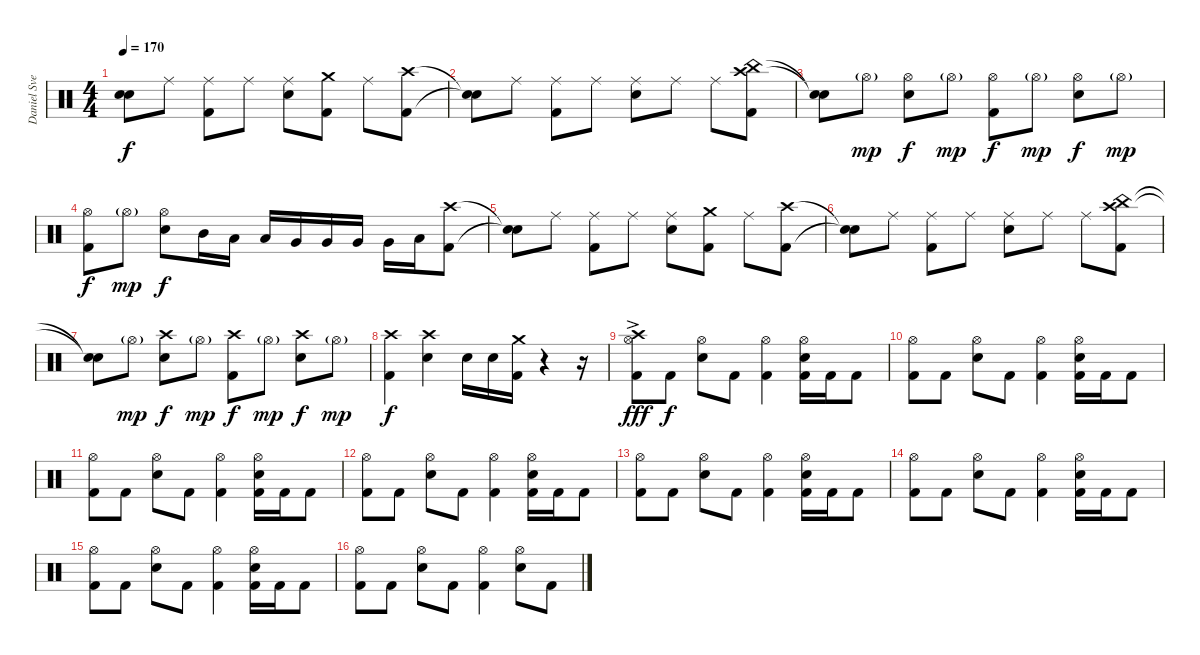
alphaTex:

\track ("Daniel Svensson" "Daniel Sve") {instrument percussion}
\staff {score}
\articulation defaults
\ts (4 4)
\tempo 170
\clef neutral
\ks c
("Snare (hit)"{t} "Snare (hit)"{t}).8{dy f} "Ride (middle)".8 ("Ride (middle)" "Kick (hit) 2").8 "Ride (middle)".8 ("Ride (middle)" "Electric Snare (hit)").8 ("Crash medium (hit)" "Kick (hit) 2").8 "Ride (middle)".8 ("Crash high (hit)" "Kick (hit) 2").8 |
("Snare (hit)"{t} "Snare (hit)"{t}).8 "Ride (middle)".8 ("Ride (middle)" "Kick (hit) 2").8 "Ride (middle)".8 ("Ride (middle)" "Electric Snare (hit)").8 "Ride (middle)".8 "Ride (middle)".8 ("Crash high (hit)" "China (hit)" "Kick (hit) 2").8 |
("Snare (hit)"{t} "Snare (hit)"{t}).8 "Hi-Hat (open)"{g}.8{dy mp} ("Hi-Hat (open)" "Electric Snare (hit)").8{dy f} "Hi-Hat (open)"{g}.8{dy mp} ("Hi-Hat (open)" "Kick (hit) 2").8{dy f} "Hi-Hat (open)"{g}.8{dy mp} ("Hi-Hat (open)" "Electric Snare (hit)").8{dy f} "Hi-Hat (open)"{g}.8{dy mp} |
("Hi-Hat (open)" "Kick (hit) 2").8{dy f} "Hi-Hat (open)"{g}.8{dy mp} ("Hi-Hat (open)" "Electric Snare (hit)").8{dy f} "Mid Tom (hit)".16 "Low Tom (hit)".16 "Low Tom (hit)".16 "Very Low Tom (hit)".16 "Very Low Tom (hit)".16 "Very Low Tom (hit)".16 "Very Low Tom (hit)".16 "Low Floor Tom (hit)".16 ("Crash high (hit)" "Kick (hit) 2").8 |
("Snare (hit)"{t} "Snare (hit)"{t}).8 "Ride (middle)".8 ("Ride (middle)" "Kick (hit) 2").8 "Ride (middle)".8 ("Ride (middle)" "Electric Snare (hit)").8 ("Crash medium (hit)" "Kick (hit) 2").8 "Ride (middle)".8 ("Crash high (hit)" "Kick (hit) 2").8 |
("Snare (hit)"{t} "Snare (hit)"{t}).8 "Ride (middle)".8 ("Ride (middle)" "Kick (hit) 2").8 "Ride (middle)".8 ("Ride (middle)" "Electric Snare (hit)").8 "Ride (middle)".8 "Ride (middle)".8 ("Crash high (hit)" "China (hit)" "Kick (hit) 2").8 |
("Snare (hit)"{t} "Snare (hit)"{t}).8 "Hi-Hat (open)"{g}.8{dy mp} ("Crash high (hit)" "Electric Snare (hit)").8{dy f} "Hi-Hat (open)"{g}.8{dy mp} ("Crash high (hit)" "Kick (hit) 2").8{dy f} "Hi-Hat (open)"{g}.8{dy mp} ("Crash high (hit)" "Electric Snare (hit)").8{dy f} "Hi-Hat (open)"{g}.8{dy mp} |
("Crash high (hit)" "Kick (hit) 2").4{dy f} ("Crash high (hit)" "Electric Snare (hit)").4 "Electric Snare (hit)".16 "Electric Snare (hit)".16 ("Crash medium (hit)" "Kick (hit) 2").16 r.4 r.16 |
("Crash high (hit)"{ac} "Hi-Hat (open)" "Kick (hit) 2").8{dy fff} "Kick (hit) 2".8{dy f} ("Hi-Hat (open)" "Electric Snare (hit)").8 "Kick (hit) 2".8 ("Hi-Hat (open)" "Kick (hit) 2").4 ("Hi-Hat (open)" "Electric Snare (hit)" "Kick (hit) 2").16 "Kick (hit) 2".16 "Kick (hit) 2".8 |
("Hi-Hat (open)" "Kick (hit) 2").8 "Kick (hit) 2".8 ("Hi-Hat (open)" "Electric Snare (hit)").8 "Kick (hit) 2".8 ("Hi-Hat (open)" "Kick (hit) 2").4 ("Hi-Hat (open)" "Electric Snare (hit)" "Kick (hit) 2").16 "Kick (hit) 2".16 "Kick (hit) 2".8 |
("Hi-Hat (open)" "Kick (hit) 2").8 "Kick (hit) 2".8 ("Hi-Hat (open)" "Electric Snare (hit)").8 "Kick (hit) 2".8 ("Hi-Hat (open)" "Kick (hit) 2").4 ("Hi-Hat (open)" "Electric Snare (hit)" "Kick (hit) 2").16 "Kick (hit) 2".16 "Kick (hit) 2".8 |
("Hi-Hat (open)" "Kick (hit) 2").8 "Kick (hit) 2".8 ("Hi-Hat (open)" "Electric Snare (hit)").8 "Kick (hit) 2".8 ("Hi-Hat (open)" "Kick (hit) 2").4 ("Hi-Hat (open)" "Electric Snare (hit)" "Kick (hit) 2").16 "Kick (hit) 2".16 "Kick (hit) 2".8 |
("Hi-Hat (open)" "Kick (hit) 2").8 "Kick (hit) 2".8 ("Hi-Hat (open)" "Electric Snare (hit)").8 "Kick (hit) 2".8 ("Hi-Hat (open)" "Kick (hit) 2").4 ("Hi-Hat (open)" "Electric Snare (hit)" "Kick (hit) 2").16 "Kick (hit) 2".16 "Kick (hit) 2".8 |
("Hi-Hat (open)" "Kick (hit) 2").8 "Kick (hit) 2".8 ("Hi-Hat (open)" "Electric Snare (hit)").8 "Kick (hit) 2".8 ("Hi-Hat (open)" "Kick (hit) 2").4 ("Hi-Hat (open)" "Electric Snare (hit)" "Kick (hit) 2").16 "Kick (hit) 2".16 "Kick (hit) 2".8 |
("Hi-Hat (open)" "Kick (hit) 2").8 "Kick (hit) 2".8 ("Hi-Hat (open)" "Electric Snare (hit)").8 "Kick (hit) 2".8 ("Hi-Hat (open)" "Kick (hit) 2").4 ("Hi-Hat (open)" "Electric Snare (hit)" "Kick (hit) 2").16 "Kick (hit) 2".16 "Kick (hit) 2".8 |
("Hi-Hat (open)" "Kick (hit) 2").8 "Kick (hit) 2".8 ("Hi-Hat (open)" "Electric Snare (hit)").8 "Kick (hit) 2".8 ("Hi-Hat (open)" "Kick (hit) 2").4 ("Hi-Hat (open)" "Electric Snare (hit)").8 "Kick (hit) 2".8
